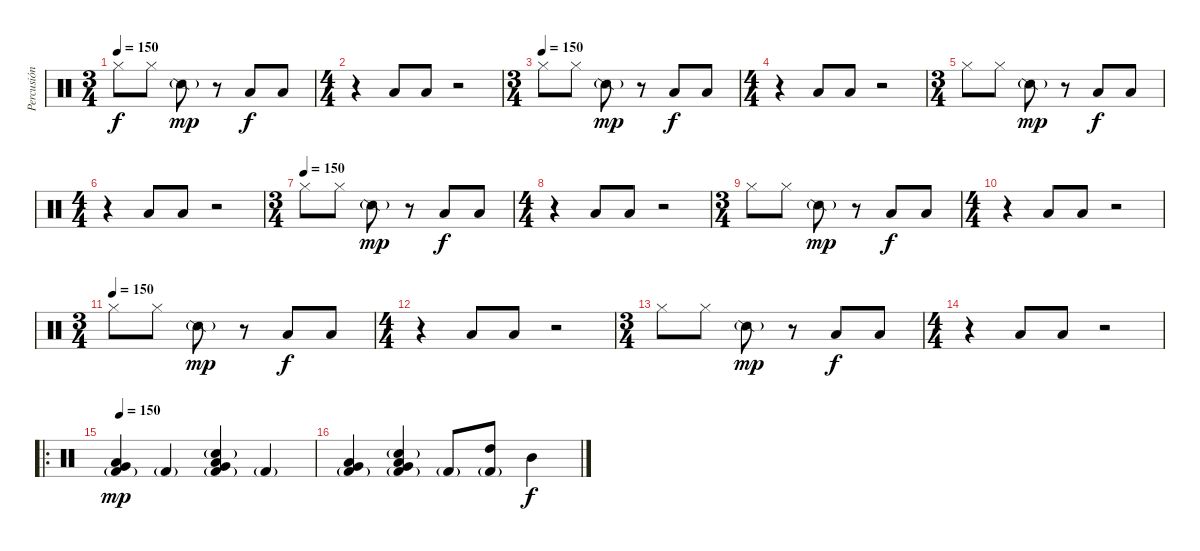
\track ("Percusión" "Percusión") {instrument percussion}
\staff {score}
\articulation defaults
\ts (3 4)
\tempo 150
\clef neutral
\ks c "Hi-Hat (closed)".8{dy f} "Hi-Hat (closed)".8 "Snare (side stick) 2"{g}.8{dy mp}
r.8 "Low Floor Tom (hit)".8{dy f} "Low Floor Tom (hit)".8 |
\ts (4 4)
r.4 "Low Floor Tom (hit)".8 "Low Floor Tom (hit)".8 r.2 |
\ts (3 4)
\tempo (150)
"Hi-Hat (closed)".8 "Hi-Hat (closed)".8 "Snare (side stick) 2"{g}.8{dy mp} r.8 "Low Floor Tom (hit)".8{dy f} "Low Floor Tom (hit)".8 |
\ts (4 4)
r.4 "Low Floor Tom (hit)".8 "Low Floor Tom (hit)".8 r.2 |
\ts (3 4)
"Hi-Hat (closed)".8 "Hi-Hat (closed)".8 "Snare (side stick) 2"{g}.8{dy mp} r.8 "Low Floor Tom (hit)".8{dy f} "Low Floor Tom (hit)".8 |
\ts (4 4)
r.4 "Low Floor Tom (hit)".8 "Low Floor Tom (hit)".8 r.2 |
\ts (3 4)
\tempo (150)
"Hi-Hat (closed)".8 "Hi-Hat (closed)".8 "Snare (side stick) 2"{g}.8{dy mp} r.8 "Low Floor Tom (hit)".8{dy f} "Low Floor Tom (hit)".8 |
\ts (4 4)
r.4 "Low Floor Tom (hit)".8 "Low Floor Tom (hit)".8 r.2 |
\ts (3 4)
"Hi-Hat (closed)".8 "Hi-Hat (closed)".8 "Snare (side stick) 2"{g}.8{dy mp} r.8 "Low Floor Tom (hit)".8{dy f} "Low Floor Tom (hit)".8 |
\ts (4 4)
r.4 "Low Floor Tom (hit)".8 "Low Floor Tom (hit)".8 r.2 |
\ts (3 4)
\tempo (150)
"Hi-Hat (closed)".8 "Hi-Hat (closed)".8 "Snare (side stick) 2"{g}.8{dy mp} r.8 "Low Floor Tom (hit)".8{dy f} "Low Floor Tom (hit)".8 |
\ts (4 4)
r.4 "Low Floor Tom (hit)".8 "Low Floor Tom (hit)".8 r.2 |
\ts (3 4)
"Hi-Hat (closed)".8 "Hi-Hat (closed)".8 "Snare (side stick) 2"{g}.8{dy mp} r.8 "Low Floor Tom (hit)".8{dy f} "Low Floor Tom (hit)".8 |
\ts (4 4)
r.4 "Low Floor Tom (hit)".8 "Low Floor Tom (hit)".8 r.2 |
\ro
\tempo 150
("Kick (hit) 2"{g} "Very Low Tom (hit)" "Low Floor Tom (hit)").4{dy mp} "Kick (hit) 2"{g}.4 ("Kick (hit) 2"{g} "Very Low Tom (hit)" "Low Tom (hit)" "Electric Snare (hit)"{g}).4 "Kick (hit) 2"{g}.4 |
("Kick (hit) 2"{g} "Very Low Tom (hit)" "Low Floor Tom (hit)").4 ("Kick (hit) 2"{g} "Very Low Tom (hit)" "Low Tom (hit)" "Electric Snare (hit)"{g}).4 "Kick (hit) 2"{g}.8 ("Kick (hit) 2"{g} "High Tom (hit)").8 "Mid Tom (hit)".4{dy f}
